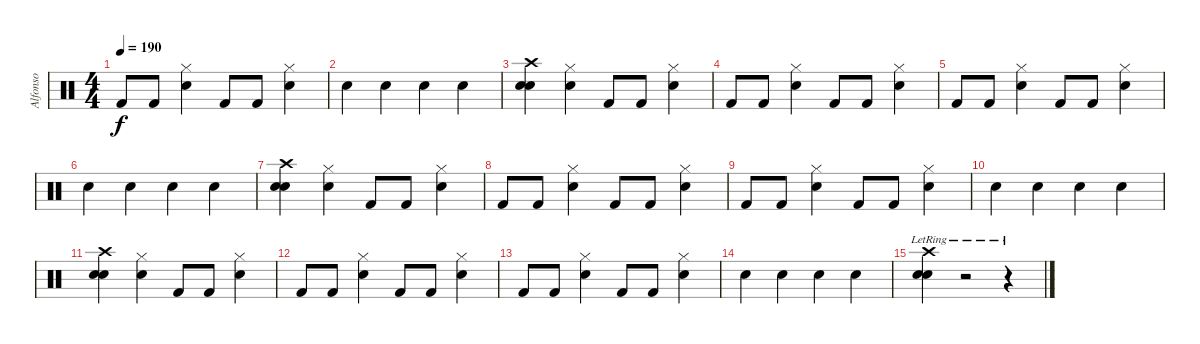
\track ("Alfonso" "Alfonso") {instrument percussion}
\staff {score}
\articulation defaults
\ts (4 4)
\tempo 190
\clef neutral
\ks c "Kick (hit) 2".8{dy f} "Kick (hit) 2".8
("Hi-Hat (closed)" "Electric Snare (hit)").4 "Kick (hit) 2".8 "Kick (hit) 2".8 ("Hi-Hat (closed)" "Electric Snare (hit)").4 |
"Electric Snare (hit)".4 "Electric Snare (hit)".4 "Electric Snare (hit)".4 "Electric Snare (hit)".4 |
("Crash high (hit)" "Electric Snare (hit)" "Snare (hit) 2").4 ("Hi-Hat (closed)" "Electric Snare (hit)").4 "Kick (hit) 2".8 "Kick (hit) 2".8 ("Hi-Hat (closed)" "Electric Snare (hit)").4 |
"Kick (hit) 2".8 "Kick (hit) 2".8 ("Hi-Hat (closed)" "Electric Snare (hit)").4 "Kick (hit) 2".8 "Kick (hit) 2".8 ("Hi-Hat (closed)" "Electric Snare (hit)").4 |
"Kick (hit) 2".8 "Kick (hit) 2".8 ("Hi-Hat (closed)" "Electric Snare (hit)").4 "Kick (hit) 2".8 "Kick (hit) 2".8 ("Hi-Hat (closed)" "Electric Snare (hit)").4 |
"Electric Snare (hit)".4 "Electric Snare (hit)".4 "Electric Snare (hit)".4 "Electric Snare (hit)".4 |
("Crash high (hit)" "Electric Snare (hit)" "Snare (hit) 2").4 ("Hi-Hat (closed)" "Electric Snare (hit)").4 "Kick (hit) 2".8 "Kick (hit) 2".8 ("Hi-Hat (closed)" "Electric Snare (hit)").4 |
"Kick (hit) 2".8 "Kick (hit) 2".8 ("Hi-Hat (closed)" "Electric Snare (hit)").4 "Kick (hit) 2".8 "Kick (hit) 2".8 ("Hi-Hat (closed)" "Electric Snare (hit)").4 |
"Kick (hit) 2".8 "Kick (hit) 2".8 ("Hi-Hat (closed)" "Electric Snare (hit)").4 "Kick (hit) 2".8 "Kick (hit) 2".8 ("Hi-Hat (closed)" "Electric Snare (hit)").4 |
"Electric Snare (hit)".4 "Electric Snare (hit)".4 "Electric Snare (hit)".4 "Electric Snare (hit)".4 |
("Crash high (hit)" "Electric Snare (hit)" "Snare (hit) 2").4 ("Hi-Hat (closed)" "Electric Snare (hit)").4 "Kick (hit) 2".8 "Kick (hit) 2".8 ("Hi-Hat (closed)" "Electric Snare (hit)").4 |
"Kick (hit) 2".8 "Kick (hit) 2".8 ("Hi-Hat (closed)" "Electric Snare (hit)").4 "Kick (hit) 2".8 "Kick (hit) 2".8 ("Hi-Hat (closed)" "Electric Snare (hit)").4 |
"Kick (hit) 2".8 "Kick (hit) 2".8 ("Hi-Hat (closed)" "Electric Snare (hit)").4 "Kick (hit) 2".8 "Kick (hit) 2".8 ("Hi-Hat (closed)" "Electric Snare (hit)").4 |
"Electric Snare (hit)".4 "Electric Snare (hit)".4 "Electric Snare (hit)".4 "Electric Snare (hit)".4 |
("Crash high (hit)"{lr} "Electric Snare (hit)"{lr} "Snare (hit) 2"{lr}).4 r.2 r.4
